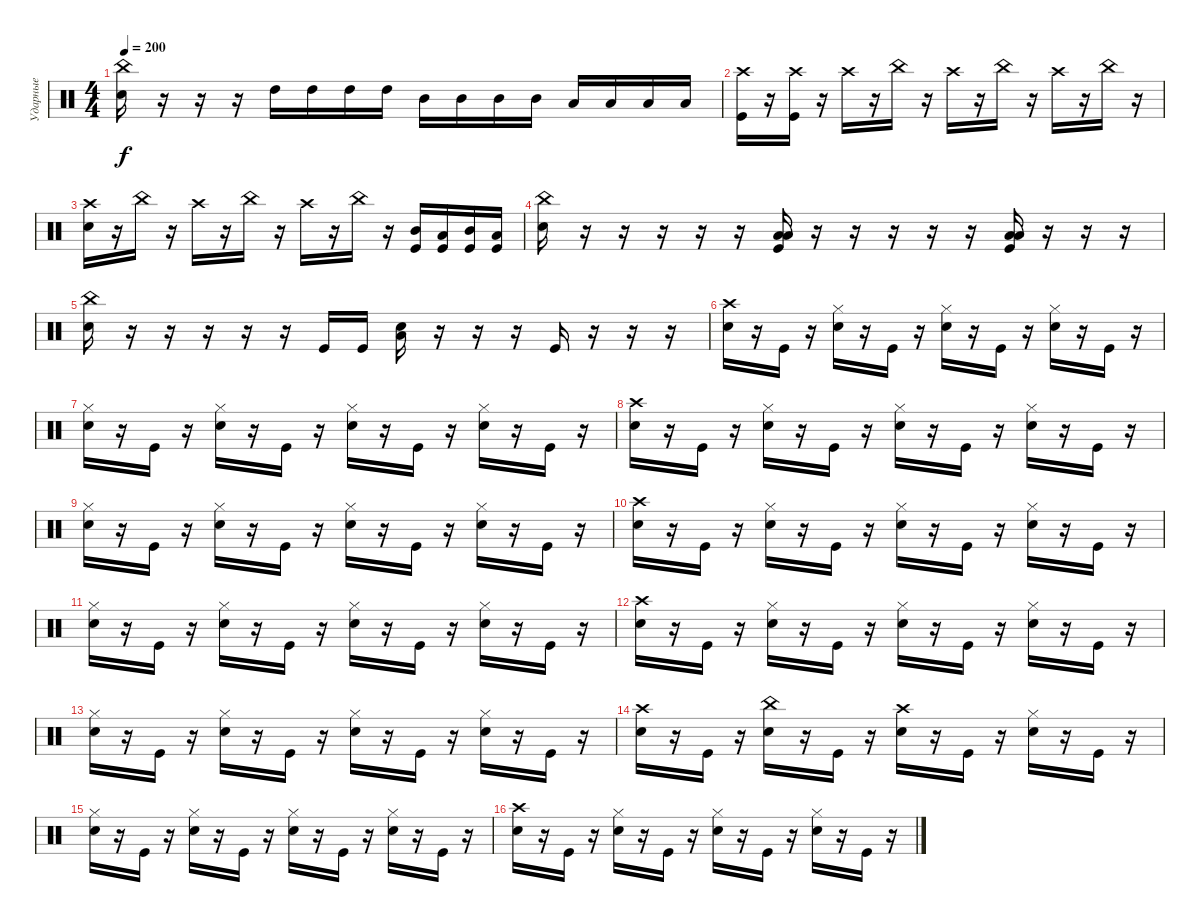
\track ("Ударные" "Ударные") {instrument percussion}
\staff {score}
\articulation defaults
\ts (4 4)
\tempo 200
\clef neutral
\ks c
("China (hit)" "Electric Snare (hit)").16{dy f} r.16 r.16 r.16 "High Tom (hit)".16 "High Tom (hit)".16 "High Tom (hit)".16 "High Tom (hit)".16 "Mid Tom (hit)".16 "Mid Tom (hit)".16 "Mid Tom (hit)".16 "Mid Tom (hit)".16 "Low Floor Tom (hit)".16 "Low Floor Tom (hit)".16 "Low Floor Tom (hit)".16 "Low Floor Tom (hit)".16 |
("Crash high (hit)" "Kick (hit)").16 r.16 ("Crash high (hit)" "Kick (hit)").16 r.16 "Crash high (hit)".16 r.16 "China (hit)".16 r.16 "Crash high (hit)".16 r.16 "China (hit)".16 r.16 "Crash high (hit)".16 r.16 "China (hit)".16 r.16 |
("Crash high (hit)" "Electric Snare (hit)").16 r.16 "China (hit)".16 r.16 "Crash high (hit)".16 r.16 "China (hit)".16 r.16 "Crash high (hit)".16 r.16 "China (hit)".16 r.16 ("Kick (hit)" "Mid Tom (hit)").16 ("Kick (hit)" "Low Tom (hit)").16 ("Kick (hit)" "Mid Tom (hit)").16 ("Kick (hit)" "Low Tom (hit)").16 |
("China (hit)" "Electric Snare (hit)").16 r.16 r.16 r.16 r.16 r.16 ("Low Floor Tom (hit)" "Kick (hit)" "Low Tom (hit)").16 r.16 r.16 r.16 r.16 r.16 ("Low Floor Tom (hit)" "Kick (hit)" "Low Tom (hit)").16 r.16 r.16 r.16 |
("China (hit)" "Electric Snare (hit)").16 r.16 r.16 r.16 r.16 r.16 "Kick (hit)".16 "Kick (hit)".16 ("Low Floor Tom (hit)" "Electric Snare (hit)").16 r.16 r.16 r.16 "Kick (hit)".16 r.16 r.16 r.16 |
("Crash high (hit)" "Electric Snare (hit)").16 r.16 "Kick (hit)".16 r.16 ("Hi-Hat (closed)" "Electric Snare (hit)").16 r.16 "Kick (hit)".16 r.16 ("Hi-Hat (closed)" "Electric Snare (hit)").16 r.16 "Kick (hit)".16 r.16 ("Hi-Hat (closed)" "Electric Snare (hit)").16 r.16 "Kick (hit)".16 r.16 |
("Hi-Hat (closed)" "Electric Snare (hit)").16 r.16 "Kick (hit)".16 r.16 ("Hi-Hat (closed)" "Electric Snare (hit)").16 r.16 "Kick (hit)".16 r.16 ("Hi-Hat (closed)" "Electric Snare (hit)").16 r.16 "Kick (hit)".16 r.16 ("Hi-Hat (closed)" "Electric Snare (hit)").16 r.16 "Kick (hit)".16 r.16 |
("Crash high (hit)" "Electric Snare (hit)").16 r.16 "Kick (hit)".16 r.16 ("Hi-Hat (closed)" "Electric Snare (hit)").16 r.16 "Kick (hit)".16 r.16 ("Hi-Hat (closed)" "Electric Snare (hit)").16 r.16 "Kick (hit)".16 r.16 ("Hi-Hat (closed)" "Electric Snare (hit)").16 r.16 "Kick (hit)".16 r.16 |
("Hi-Hat (closed)" "Electric Snare (hit)").16 r.16 "Kick (hit)".16 r.16 ("Hi-Hat (closed)" "Electric Snare (hit)").16 r.16 "Kick (hit)".16 r.16 ("Hi-Hat (closed)" "Electric Snare (hit)").16 r.16 "Kick (hit)".16 r.16 ("Hi-Hat (closed)" "Electric Snare (hit)").16 r.16 "Kick (hit)".16 r.16 |
("Crash high (hit)" "Electric Snare (hit)").16 r.16 "Kick (hit)".16 r.16 ("Hi-Hat (closed)" "Electric Snare (hit)").16 r.16 "Kick (hit)".16 r.16 ("Hi-Hat (closed)" "Electric Snare (hit)").16 r.16 "Kick (hit)".16 r.16 ("Hi-Hat (closed)" "Electric Snare (hit)").16 r.16 "Kick (hit)".16 r.16 |
("Hi-Hat (closed)" "Electric Snare (hit)").16 r.16 "Kick (hit)".16 r.16 ("Hi-Hat (closed)" "Electric Snare (hit)").16 r.16 "Kick (hit)".16 r.16 ("Hi-Hat (closed)" "Electric Snare (hit)").16 r.16 "Kick (hit)".16 r.16 ("Hi-Hat (closed)" "Electric Snare (hit)").16 r.16 "Kick (hit)".16 r.16 |
("Crash high (hit)" "Electric Snare (hit)").16 r.16 "Kick (hit)".16 r.16 ("Hi-Hat (closed)" "Electric Snare (hit)").16 r.16 "Kick (hit)".16 r.16 ("Hi-Hat (closed)" "Electric Snare (hit)").16 r.16 "Kick (hit)".16 r.16 ("Hi-Hat (closed)" "Electric Snare (hit)").16 r.16 "Kick (hit)".16 r.16 |
("Hi-Hat (closed)" "Electric Snare (hit)").16 r.16 "Kick (hit)".16 r.16 ("Hi-Hat (closed)" "Electric Snare (hit)").16 r.16 "Kick (hit)".16 r.16 ("Hi-Hat (closed)" "Electric Snare (hit)").16 r.16 "Kick (hit)".16 r.16 ("Hi-Hat (closed)" "Electric Snare (hit)").16 r.16 "Kick (hit)".16 r.16 |
("Crash high (hit)" "Electric Snare (hit)").16 r.16 "Kick (hit)".16 r.16 ("China (hit)" "Electric Snare (hit)").16 r.16 "Kick (hit)".16 r.16 ("Crash high (hit)" "Electric Snare (hit)").16 r.16 "Kick (hit)".16 r.16 ("Hi-Hat (closed)" "Electric Snare (hit)").16 r.16 "Kick (hit)".16 r.16 |
("Hi-Hat (closed)" "Electric Snare (hit)").16 r.16 "Kick (hit)".16 r.16 ("Hi-Hat (closed)" "Electric Snare (hit)").16 r.16 "Kick (hit)".16 r.16 ("Hi-Hat (closed)" "Electric Snare (hit)").16 r.16 "Kick (hit)".16 r.16 ("Hi-Hat (closed)" "Electric Snare (hit)").16 r.16 "Kick (hit)".16 r.16 |
("Crash high (hit)" "Electric Snare (hit)").16 r.16 "Kick (hit)".16 r.16 ("Hi-Hat (closed)" "Electric Snare (hit)").16 r.16 "Kick (hit)".16 r.16 ("Hi-Hat (closed)" "Electric Snare (hit)").16 r.16 "Kick (hit)".16 r.16 ("Hi-Hat (closed)" "Electric Snare (hit)").16 r.16 "Kick (hit)".16 r.16
